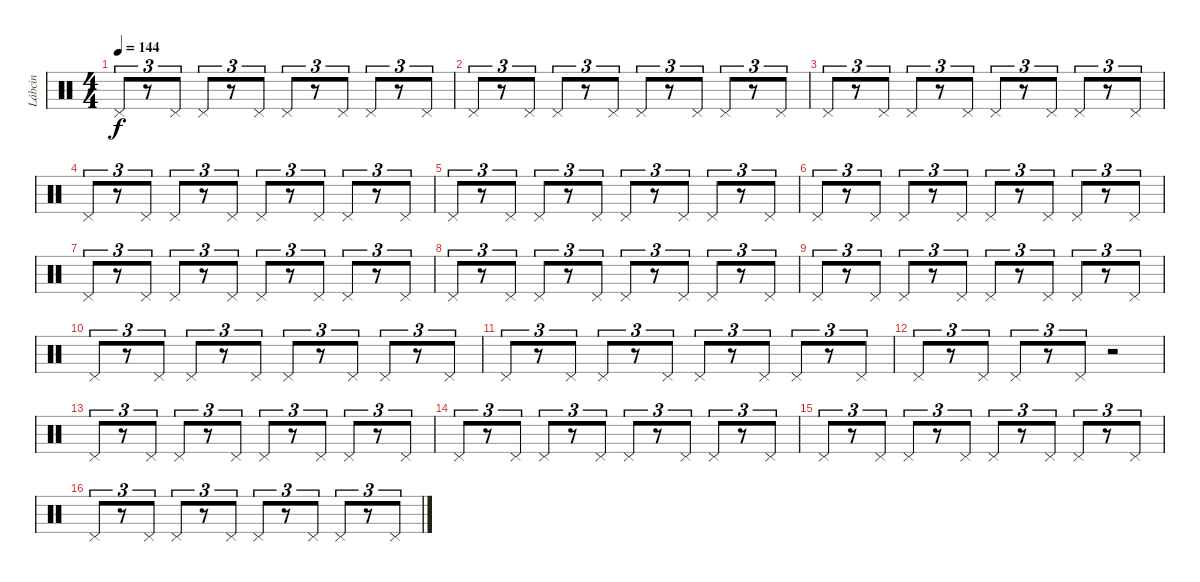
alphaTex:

\track ("Lábcin" "Lábcin") {instrument percussion}
\staff {score}
\articulation defaults
\ts (4 4)
\tempo 144
\clef neutral
\ks c "Pedal Hi-Hat (hit)".8{tu (3 2) dy f}
r.8{tu (3 2)} "Pedal Hi-Hat (hit)".8{tu (3 2)} "Pedal Hi-Hat (hit)".8{tu (3 2)} r.8{tu (3 2)} "Pedal Hi-Hat (hit)".8{tu (3 2)} "Pedal Hi-Hat (hit)".8{tu (3 2)} r.8{tu (3 2)} "Pedal Hi-Hat (hit)".8{tu (3 2)} "Pedal Hi-Hat (hit)".8{tu (3 2)} r.8{tu (3 2)} "Pedal Hi-Hat (hit)".8{tu (3 2)} |
"Pedal Hi-Hat (hit)".8{tu (3 2)} r.8{tu (3 2)} "Pedal Hi-Hat (hit)".8{tu (3 2)} "Pedal Hi-Hat (hit)".8{tu (3 2)} r.8{tu (3 2)} "Pedal Hi-Hat (hit)".8{tu (3 2)} "Pedal Hi-Hat (hit)".8{tu (3 2)} r.8{tu (3 2)} "Pedal Hi-Hat (hit)".8{tu (3 2)} "Pedal Hi-Hat (hit)".8{tu (3 2)} r.8{tu (3 2)} "Pedal Hi-Hat (hit)".8{tu (3 2)} |
"Pedal Hi-Hat (hit)".8{tu (3 2)} r.8{tu (3 2)} "Pedal Hi-Hat (hit)".8{tu (3 2)} "Pedal Hi-Hat (hit)".8{tu (3 2)} r.8{tu (3 2)} "Pedal Hi-Hat (hit)".8{tu (3 2)} "Pedal Hi-Hat (hit)".8{tu (3 2)} r.8{tu (3 2)} "Pedal Hi-Hat (hit)".8{tu (3 2)} "Pedal Hi-Hat (hit)".8{tu (3 2)} r.8{tu (3 2)} "Pedal Hi-Hat (hit)".8{tu (3 2)} |
"Pedal Hi-Hat (hit)".8{tu (3 2)} r.8{tu (3 2)} "Pedal Hi-Hat (hit)".8{tu (3 2)} "Pedal Hi-Hat (hit)".8{tu (3 2)} r.8{tu (3 2)} "Pedal Hi-Hat (hit)".8{tu (3 2)} "Pedal Hi-Hat (hit)".8{tu (3 2)} r.8{tu (3 2)} "Pedal Hi-Hat (hit)".8{tu (3 2)} "Pedal Hi-Hat (hit)".8{tu (3 2)} r.8{tu (3 2)} "Pedal Hi-Hat (hit)".8{tu (3 2)} |
"Pedal Hi-Hat (hit)".8{tu (3 2)} r.8{tu (3 2)} "Pedal Hi-Hat (hit)".8{tu (3 2)} "Pedal Hi-Hat (hit)".8{tu (3 2)} r.8{tu (3 2)} "Pedal Hi-Hat (hit)".8{tu (3 2)} "Pedal Hi-Hat (hit)".8{tu (3 2)} r.8{tu (3 2)} "Pedal Hi-Hat (hit)".8{tu (3 2)} "Pedal Hi-Hat (hit)".8{tu (3 2)} r.8{tu (3 2)} "Pedal Hi-Hat (hit)".8{tu (3 2)} |
"Pedal Hi-Hat (hit)".8{tu (3 2)} r.8{tu (3 2)} "Pedal Hi-Hat (hit)".8{tu (3 2)} "Pedal Hi-Hat (hit)".8{tu (3 2)} r.8{tu (3 2)} "Pedal Hi-Hat (hit)".8{tu (3 2)} "Pedal Hi-Hat (hit)".8{tu (3 2)} r.8{tu (3 2)} "Pedal Hi-Hat (hit)".8{tu (3 2)} "Pedal Hi-Hat (hit)".8{tu (3 2)} r.8{tu (3 2)} "Pedal Hi-Hat (hit)".8{tu (3 2)} |
"Pedal Hi-Hat (hit)".8{tu (3 2)} r.8{tu (3 2)} "Pedal Hi-Hat (hit)".8{tu (3 2)} "Pedal Hi-Hat (hit)".8{tu (3 2)} r.8{tu (3 2)} "Pedal Hi-Hat (hit)".8{tu (3 2)} "Pedal Hi-Hat (hit)".8{tu (3 2)} r.8{tu (3 2)} "Pedal Hi-Hat (hit)".8{tu (3 2)} "Pedal Hi-Hat (hit)".8{tu (3 2)} r.8{tu (3 2)} "Pedal Hi-Hat (hit)".8{tu (3 2)} |
"Pedal Hi-Hat (hit)".8{tu (3 2)} r.8{tu (3 2)} "Pedal Hi-Hat (hit)".8{tu (3 2)} "Pedal Hi-Hat (hit)".8{tu (3 2)} r.8{tu (3 2)} "Pedal Hi-Hat (hit)".8{tu (3 2)} "Pedal Hi-Hat (hit)".8{tu (3 2)} r.8{tu (3 2)} "Pedal Hi-Hat (hit)".8{tu (3 2)} "Pedal Hi-Hat (hit)".8{tu (3 2)} r.8{tu (3 2)} "Pedal Hi-Hat (hit)".8{tu (3 2)} |
"Pedal Hi-Hat (hit)".8{tu (3 2)} r.8{tu (3 2)} "Pedal Hi-Hat (hit)".8{tu (3 2)} "Pedal Hi-Hat (hit)".8{tu (3 2)} r.8{tu (3 2)} "Pedal Hi-Hat (hit)".8{tu (3 2)} "Pedal Hi-Hat (hit)".8{tu (3 2)} r.8{tu (3 2)} "Pedal Hi-Hat (hit)".8{tu (3 2)} "Pedal Hi-Hat (hit)".8{tu (3 2)} r.8{tu (3 2)} "Pedal Hi-Hat (hit)".8{tu (3 2)} |
"Pedal Hi-Hat (hit)".8{tu (3 2)} r.8{tu (3 2)} "Pedal Hi-Hat (hit)".8{tu (3 2)} "Pedal Hi-Hat (hit)".8{tu (3 2)} r.8{tu (3 2)} "Pedal Hi-Hat (hit)".8{tu (3 2)} "Pedal Hi-Hat (hit)".8{tu (3 2)} r.8{tu (3 2)} "Pedal Hi-Hat (hit)".8{tu (3 2)} "Pedal Hi-Hat (hit)".8{tu (3 2)} r.8{tu (3 2)} "Pedal Hi-Hat (hit)".8{tu (3 2)} |
"Pedal Hi-Hat (hit)".8{tu (3 2)} r.8{tu (3 2)} "Pedal Hi-Hat (hit)".8{tu (3 2)} "Pedal Hi-Hat (hit)".8{tu (3 2)} r.8{tu (3 2)} "Pedal Hi-Hat (hit)".8{tu (3 2)} "Pedal Hi-Hat (hit)".8{tu (3 2)} r.8{tu (3 2)} "Pedal Hi-Hat (hit)".8{tu (3 2)} "Pedal Hi-Hat (hit)".8{tu (3 2)} r.8{tu (3 2)} "Pedal Hi-Hat (hit)".8{tu (3 2)} |
"Pedal Hi-Hat (hit)".8{tu (3 2)} r.8{tu (3 2)} "Pedal Hi-Hat (hit)".8{tu (3 2)} "Pedal Hi-Hat (hit)".8{tu (3 2)} r.8{tu (3 2)} "Pedal Hi-Hat (hit)".8{tu (3 2)} r.2 |
"Pedal Hi-Hat (hit)".8{tu (3 2)} r.8{tu (3 2)} "Pedal Hi-Hat (hit)".8{tu (3 2)} "Pedal Hi-Hat (hit)".8{tu (3 2)} r.8{tu (3 2)} "Pedal Hi-Hat (hit)".8{tu (3 2)} "Pedal Hi-Hat (hit)".8{tu (3 2)} r.8{tu (3 2)} "Pedal Hi-Hat (hit)".8{tu (3 2)} "Pedal Hi-Hat (hit)".8{tu (3 2)} r.8{tu (3 2)} "Pedal Hi-Hat (hit)".8{tu (3 2)} |
"Pedal Hi-Hat (hit)".8{tu (3 2)} r.8{tu (3 2)} "Pedal Hi-Hat (hit)".8{tu (3 2)} "Pedal Hi-Hat (hit)".8{tu (3 2)} r.8{tu (3 2)} "Pedal Hi-Hat (hit)".8{tu (3 2)} "Pedal Hi-Hat (hit)".8{tu (3 2)} r.8{tu (3 2)} "Pedal Hi-Hat (hit)".8{tu (3 2)} "Pedal Hi-Hat (hit)".8{tu (3 2)} r.8{tu (3 2)} "Pedal Hi-Hat (hit)".8{tu (3 2)} |
"Pedal Hi-Hat (hit)".8{tu (3 2)} r.8{tu (3 2)} "Pedal Hi-Hat (hit)".8{tu (3 2)} "Pedal Hi-Hat (hit)".8{tu (3 2)} r.8{tu (3 2)} "Pedal Hi-Hat (hit)".8{tu (3 2)} "Pedal Hi-Hat (hit)".8{tu (3 2)} r.8{tu (3 2)} "Pedal Hi-Hat (hit)".8{tu (3 2)} "Pedal Hi-Hat (hit)".8{tu (3 2)} r.8{tu (3 2)} "Pedal Hi-Hat (hit)".8{tu (3 2)} |
"Pedal Hi-Hat (hit)".8{tu (3 2)} r.8{tu (3 2)} "Pedal Hi-Hat (hit)".8{tu (3 2)} "Pedal Hi-Hat (hit)".8{tu (3 2)} r.8{tu (3 2)} "Pedal Hi-Hat (hit)".8{tu (3 2)} "Pedal Hi-Hat (hit)".8{tu (3 2)} r.8{tu (3 2)} "Pedal Hi-Hat (hit)".8{tu (3 2)} "Pedal Hi-Hat (hit)".8{tu (3 2)} r.8{tu (3 2)} "Pedal Hi-Hat (hit)".8{tu (3 2)}
